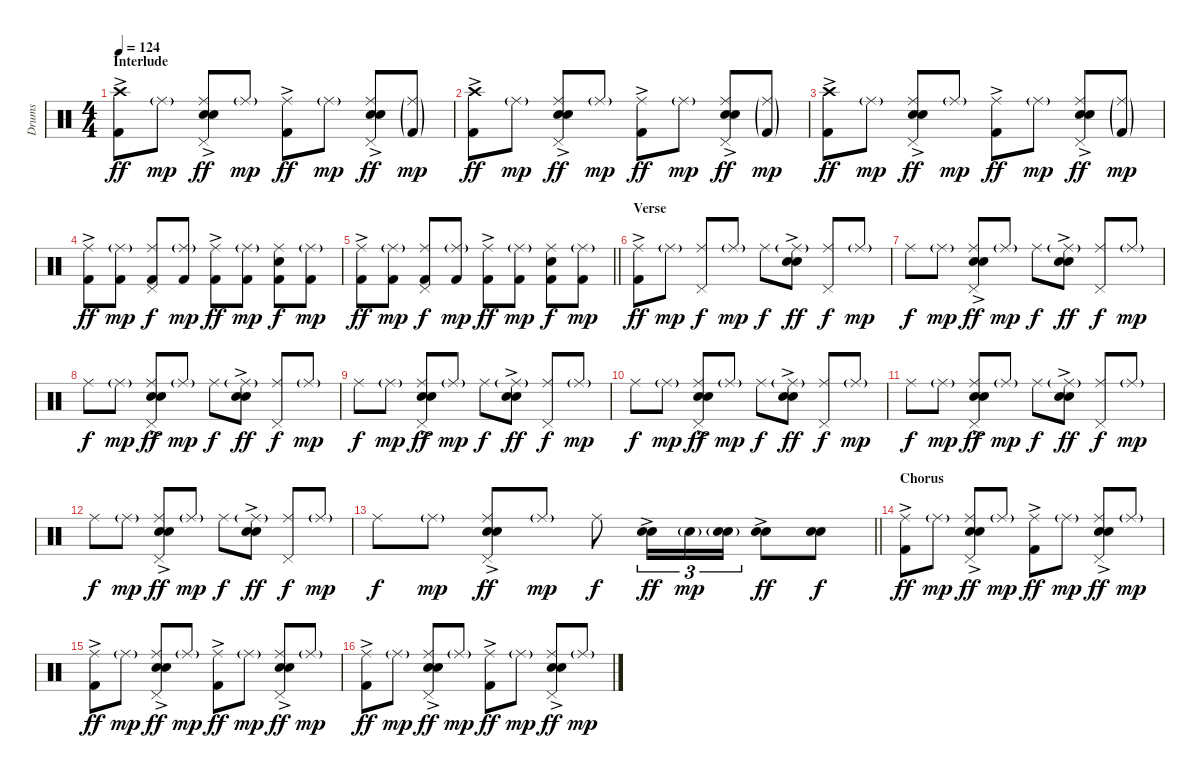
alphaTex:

\track ("Drums" "Drums") {instrument percussion}
\staff {score}
\articulation defaults
\ts (4 4)
\section ("" "Interlude")
\tempo 124
\clef neutral
\ks c
("Crash high (hit)" "Kick (hit) 2"{ac}).8{dy ff} "Ride (middle)"{g}.8{dy mp} ("Ride (middle)" "Electric Snare (hit)"{ac} "Snare (hit) 2" "Pedal Hi-Hat (hit)").8{dy ff} "Ride (middle)"{g}.8{dy mp} ("Ride (middle)" "Kick (hit) 2"{ac}).8{dy ff} "Ride (middle)"{g}.8{dy mp} ("Ride (middle)" "Electric Snare (hit)"{ac} "Snare (hit) 2" "Pedal Hi-Hat (hit)").8{dy ff} ("Ride (middle)"{g} "Kick (hit) 2"{g}).8{dy mp} |
("Crash high (hit)" "Kick (hit) 2"{ac}).8{dy ff} "Ride (middle)"{g}.8{dy mp} ("Ride (middle)" "Electric Snare (hit)"{ac} "Snare (hit) 2" "Pedal Hi-Hat (hit)").8{dy ff} "Ride (middle)"{g}.8{dy mp} ("Ride (middle)" "Kick (hit) 2"{ac}).8{dy ff} "Ride (middle)"{g}.8{dy mp} ("Ride (middle)" "Electric Snare (hit)"{ac} "Snare (hit) 2" "Pedal Hi-Hat (hit)").8{dy ff} ("Ride (middle)"{g} "Kick (hit) 2"{g}).8{dy mp} |
("Crash high (hit)" "Kick (hit) 2"{ac}).8{dy ff} "Ride (middle)"{g}.8{dy mp} ("Ride (middle)" "Electric Snare (hit)"{ac} "Snare (hit) 2" "Pedal Hi-Hat (hit)").8{dy ff} "Ride (middle)"{g}.8{dy mp} ("Ride (middle)" "Kick (hit) 2"{ac}).8{dy ff} "Ride (middle)"{g}.8{dy mp} ("Ride (middle)" "Electric Snare (hit)"{ac} "Snare (hit) 2" "Pedal Hi-Hat (hit)").8{dy ff} ("Ride (middle)"{g} "Kick (hit) 2"{g}).8{dy mp} |
("Ride (middle)" "Kick (hit) 2"{ac}).8{dy ff} ("Ride (middle)"{g} "Kick (hit) 2").8{dy mp} ("Ride (middle)" "Pedal Hi-Hat (hit)" "Kick (hit) 2").8{dy f} ("Ride (middle)"{g} "Kick (hit) 2").8{dy mp} ("Ride (middle)" "Kick (hit) 2"{ac}).8{dy ff} ("Ride (middle)"{g} "Kick (hit) 2").8{dy mp} ("Ride (middle)" "Snare (hit)" "Kick (hit) 2").8{dy f} ("Ride (middle)"{g} "Kick (hit) 2").8{dy mp} |
\barLineRight lightlight
("Ride (middle)" "Kick (hit) 2"{ac}).8{dy ff} ("Ride (middle)"{g} "Kick (hit) 2").8{dy mp} ("Ride (middle)" "Pedal Hi-Hat (hit)" "Kick (hit) 2").8{dy f} ("Ride (middle)"{g} "Kick (hit) 2").8{dy mp} ("Ride (middle)" "Kick (hit) 2"{ac}).8{dy ff} ("Ride (middle)"{g} "Kick (hit) 2").8{dy mp} ("Ride (middle)" "Snare (hit)" "Kick (hit) 2").8{dy f} ("Ride (middle)"{g} "Kick (hit) 2").8{dy mp} |
\section ("" "Verse")
("Ride (middle)" "Kick (hit) 2"{ac}).8{dy ff} "Ride (middle)"{g}.8{dy mp} ("Ride (middle)" "Pedal Hi-Hat (hit)").8{dy f} "Ride (middle)"{g}.8{dy mp} "Ride (middle)".8{dy f} ("Ride (middle)"{g} "Electric Snare (hit)"{ac} "Snare (hit) 2").8{dy ff} ("Ride (middle)" "Pedal Hi-Hat (hit)").8{dy f} "Ride (middle)"{g}.8{dy mp} |
"Ride (middle)".8{dy f} "Ride (middle)"{g}.8{dy mp} ("Ride (middle)" "Electric Snare (hit)"{ac} "Snare (hit) 2" "Pedal Hi-Hat (hit)").8{dy ff} "Ride (middle)"{g}.8{dy mp} "Ride (middle)".8{dy f} ("Ride (middle)"{g} "Electric Snare (hit)"{ac} "Snare (hit) 2").8{dy ff} ("Ride (middle)" "Pedal Hi-Hat (hit)").8{dy f} "Ride (middle)"{g}.8{dy mp} |
"Ride (middle)".8{dy f} "Ride (middle)"{g}.8{dy mp} ("Ride (middle)" "Electric Snare (hit)"{ac} "Snare (hit) 2" "Pedal Hi-Hat (hit)").8{dy ff} "Ride (middle)"{g}.8{dy mp} "Ride (middle)".8{dy f} ("Ride (middle)"{g} "Electric Snare (hit)"{ac} "Snare (hit) 2").8{dy ff} ("Ride (middle)" "Pedal Hi-Hat (hit)").8{dy f} "Ride (middle)"{g}.8{dy mp} |
"Ride (middle)".8{dy f} "Ride (middle)"{g}.8{dy mp} ("Ride (middle)" "Electric Snare (hit)"{ac} "Snare (hit) 2" "Pedal Hi-Hat (hit)").8{dy ff} "Ride (middle)"{g}.8{dy mp} "Ride (middle)".8{dy f} ("Ride (middle)"{g} "Electric Snare (hit)"{ac} "Snare (hit) 2").8{dy ff} ("Ride (middle)" "Pedal Hi-Hat (hit)").8{dy f} "Ride (middle)"{g}.8{dy mp} |
"Ride (middle)".8{dy f} "Ride (middle)"{g}.8{dy mp} ("Ride (middle)" "Electric Snare (hit)"{ac} "Snare (hit) 2" "Pedal Hi-Hat (hit)").8{dy ff} "Ride (middle)"{g}.8{dy mp} "Ride (middle)".8{dy f} ("Ride (middle)"{g} "Electric Snare (hit)"{ac} "Snare (hit) 2").8{dy ff} ("Ride (middle)" "Pedal Hi-Hat (hit)").8{dy f} "Ride (middle)"{g}.8{dy mp} |
"Ride (middle)".8{dy f} "Ride (middle)"{g}.8{dy mp} ("Ride (middle)" "Electric Snare (hit)"{ac} "Snare (hit) 2" "Pedal Hi-Hat (hit)").8{dy ff} "Ride (middle)"{g}.8{dy mp} "Ride (middle)".8{dy f} ("Ride (middle)"{g} "Electric Snare (hit)"{ac} "Snare (hit) 2").8{dy ff} ("Ride (middle)" "Pedal Hi-Hat (hit)").8{dy f} "Ride (middle)"{g}.8{dy mp} |
"Ride (middle)".8{dy f} "Ride (middle)"{g}.8{dy mp} ("Ride (middle)" "Electric Snare (hit)"{ac} "Snare (hit) 2" "Pedal Hi-Hat (hit)").8{dy ff} "Ride (middle)"{g}.8{dy mp} "Ride (middle)".8{dy f} ("Ride (middle)"{g} "Electric Snare (hit)"{ac} "Snare (hit) 2").8{dy ff} ("Ride (middle)" "Pedal Hi-Hat (hit)").8{dy f} "Ride (middle)"{g}.8{dy mp} |
\barLineRight lightlight "Ride (middle)".8{dy f} "Ride (middle)"{g}.8{dy mp}
("Ride (middle)" "Electric Snare (hit)"{ac} "Snare (hit) 2" "Pedal Hi-Hat (hit)").8{dy ff} "Ride (middle)"{g}.8{dy mp} "Ride (middle)".8{dy f} ("Electric Snare (hit)"{ac} "Snare (hit) 2").16{tu (3 2) dy ff} "Snare (hit) 2"{g}.16{tu (3 2) dy mp} ("Electric Snare (hit)"{g} "Snare (hit) 2").16{tu (3 2)} ("Electric Snare (hit)"{ac} "Snare (hit) 2").8{dy ff} ("Electric Snare (hit)" "Snare (hit) 2").8{dy f} |
\section ("" "Chorus")
("Ride (middle)" "Kick (hit) 2"{ac}).8{dy ff} "Ride (middle)"{g}.8{dy mp} ("Ride (middle)" "Electric Snare (hit)"{ac} "Snare (hit) 2" "Pedal Hi-Hat (hit)").8{dy ff} "Ride (middle)"{g}.8{dy mp} ("Ride (middle)" "Kick (hit) 2"{ac}).8{dy ff} "Ride (middle)"{g}.8{dy mp} ("Ride (middle)" "Electric Snare (hit)"{ac} "Snare (hit) 2" "Pedal Hi-Hat (hit)").8{dy ff} "Ride (middle)"{g}.8{dy mp} |
("Ride (middle)" "Kick (hit) 2"{ac}).8{dy ff} "Ride (middle)"{g}.8{dy mp} ("Ride (middle)" "Electric Snare (hit)"{ac} "Snare (hit) 2" "Pedal Hi-Hat (hit)").8{dy ff} "Ride (middle)"{g}.8{dy mp} ("Ride (middle)" "Kick (hit) 2"{ac}).8{dy ff} "Ride (middle)"{g}.8{dy mp} ("Ride (middle)" "Electric Snare (hit)"{ac} "Snare (hit) 2" "Pedal Hi-Hat (hit)").8{dy ff} "Ride (middle)"{g}.8{dy mp} |
("Ride (middle)" "Kick (hit) 2"{ac}).8{dy ff} "Ride (middle)"{g}.8{dy mp} ("Ride (middle)" "Electric Snare (hit)"{ac} "Snare (hit) 2" "Pedal Hi-Hat (hit)").8{dy ff} "Ride (middle)"{g}.8{dy mp} ("Ride (middle)" "Kick (hit) 2"{ac}).8{dy ff} "Ride (middle)"{g}.8{dy mp} ("Ride (middle)" "Electric Snare (hit)"{ac} "Snare (hit) 2" "Pedal Hi-Hat (hit)").8{dy ff} "Ride (middle)"{g}.8{dy mp}
